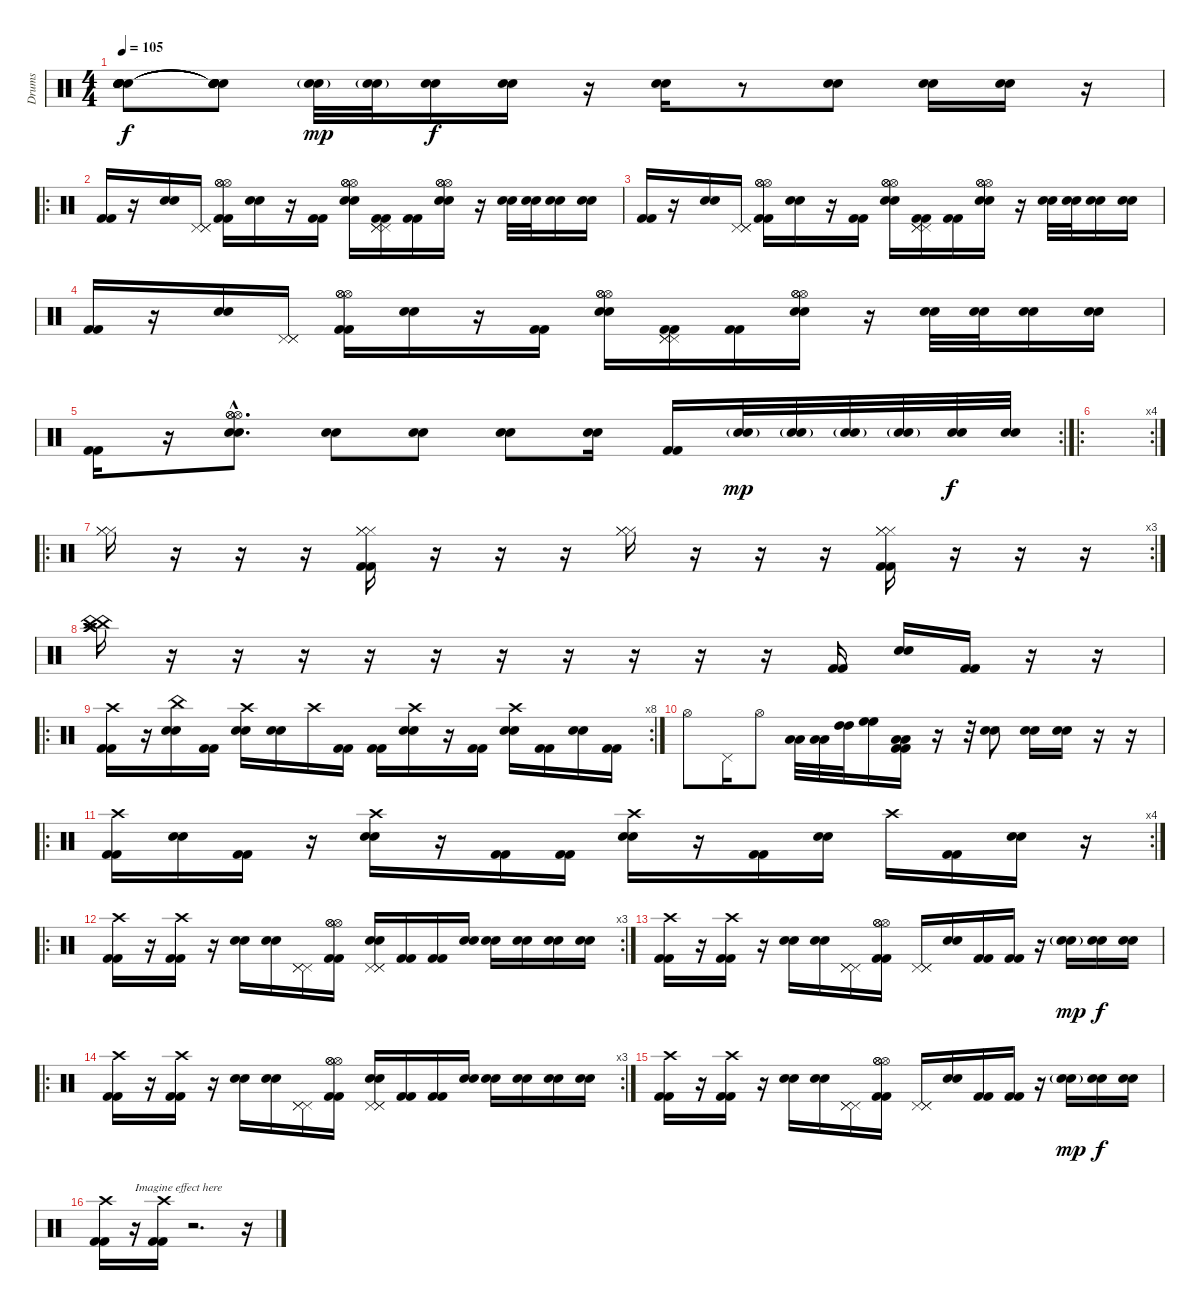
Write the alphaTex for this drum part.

\track ("Drums" "Drums") {instrument percussion}
\staff {score}
\articulation defaults
\ts (4 4)
\tempo 105
\clef neutral
\ks c
("Snare (hit)"{t} "Snare (hit)"{t} "Snare (hit)"{t} "Snare (hit)"{t} "Snare (hit)"{t} "Snare (hit)"{t}).8{dy f} ("Snare (hit)"{t} "Snare (hit)"{t} "Snare (hit)"{t} "Snare (hit)"{t} "Snare (hit)"{t} "Snare (hit)"{t}).8 ("Electric Snare (hit)"{g} "Electric Snare (hit)"{g}).32{dy mp} ("Electric Snare (hit)"{g} "Electric Snare (hit)"{g}).32 ("Electric Snare (hit)" "Electric Snare (hit)").16{dy f} ("Electric Snare (hit)" "Electric Snare (hit)").16 r.16 ("Electric Snare (hit)" "Electric Snare (hit)").16 r.8 ("Electric Snare (hit)" "Electric Snare (hit)").8 ("Electric Snare (hit)" "Electric Snare (hit)").16 ("Electric Snare (hit)" "Electric Snare (hit)").16 r.16 |
\ro
("Kick (hit) 2" "Kick (hit) 2").16 r.16 ("Electric Snare (hit)" "Electric Snare (hit)").16 ("Pedal Hi-Hat (hit)" "Pedal Hi-Hat (hit)" "Pedal Hi-Hat (hit)").16 ("Hi-Hat (open)" "Hi-Hat (open)" "Hi-Hat (open)" "Kick (hit) 2" "Kick (hit) 2").16 ("Electric Snare (hit)" "Electric Snare (hit)").16 r.16 ("Kick (hit) 2" "Kick (hit) 2").16 ("Hi-Hat (open)" "Hi-Hat (open)" "Hi-Hat (open)" "Electric Snare (hit)" "Electric Snare (hit)").16 ("Pedal Hi-Hat (hit)" "Pedal Hi-Hat (hit)" "Pedal Hi-Hat (hit)" "Kick (hit) 2" "Kick (hit) 2").16 ("Kick (hit) 2" "Kick (hit) 2").16 ("Hi-Hat (open)" "Hi-Hat (open)" "Hi-Hat (open)" "Electric Snare (hit)" "Electric Snare (hit)").16 r.16 ("Electric Snare (hit)" "Electric Snare (hit)").32 ("Electric Snare (hit)" "Electric Snare (hit)").32 ("Electric Snare (hit)" "Electric Snare (hit)").16 ("Electric Snare (hit)" "Electric Snare (hit)").16 |
("Kick (hit) 2" "Kick (hit) 2").16 r.16 ("Electric Snare (hit)" "Electric Snare (hit)").16 ("Pedal Hi-Hat (hit)" "Pedal Hi-Hat (hit)" "Pedal Hi-Hat (hit)").16 ("Hi-Hat (open)" "Hi-Hat (open)" "Hi-Hat (open)" "Kick (hit) 2" "Kick (hit) 2").16 ("Electric Snare (hit)" "Electric Snare (hit)").16 r.16 ("Kick (hit) 2" "Kick (hit) 2").16 ("Hi-Hat (open)" "Hi-Hat (open)" "Hi-Hat (open)" "Electric Snare (hit)" "Electric Snare (hit)").16 ("Pedal Hi-Hat (hit)" "Pedal Hi-Hat (hit)" "Pedal Hi-Hat (hit)" "Kick (hit) 2" "Kick (hit) 2").16 ("Kick (hit) 2" "Kick (hit) 2").16 ("Hi-Hat (open)" "Hi-Hat (open)" "Hi-Hat (open)" "Electric Snare (hit)" "Electric Snare (hit)").16 r.16 ("Electric Snare (hit)" "Electric Snare (hit)").32 ("Electric Snare (hit)" "Electric Snare (hit)").32 ("Electric Snare (hit)" "Electric Snare (hit)").16 ("Electric Snare (hit)" "Electric Snare (hit)").16 |
("Kick (hit) 2" "Kick (hit) 2").16 r.16 ("Electric Snare (hit)" "Electric Snare (hit)").16 ("Pedal Hi-Hat (hit)" "Pedal Hi-Hat (hit)" "Pedal Hi-Hat (hit)").16 ("Hi-Hat (open)" "Hi-Hat (open)" "Hi-Hat (open)" "Kick (hit) 2" "Kick (hit) 2").16 ("Electric Snare (hit)" "Electric Snare (hit)").16 r.16 ("Kick (hit) 2" "Kick (hit) 2").16 ("Hi-Hat (open)" "Hi-Hat (open)" "Hi-Hat (open)" "Electric Snare (hit)" "Electric Snare (hit)").16 ("Pedal Hi-Hat (hit)" "Pedal Hi-Hat (hit)" "Pedal Hi-Hat (hit)" "Kick (hit) 2" "Kick (hit) 2").16 ("Kick (hit) 2" "Kick (hit) 2").16 ("Hi-Hat (open)" "Hi-Hat (open)" "Hi-Hat (open)" "Electric Snare (hit)" "Electric Snare (hit)").16 r.16 ("Electric Snare (hit)" "Electric Snare (hit)").32 ("Electric Snare (hit)" "Electric Snare (hit)").32 ("Electric Snare (hit)" "Electric Snare (hit)").16 ("Electric Snare (hit)" "Electric Snare (hit)").16 |
\rc 2
("Kick (hit) 2" "Kick (hit) 2").16 r.16 ("Hi-Hat (open)"{hac} "Hi-Hat (open)"{hac} "Hi-Hat (open)"{hac} "Electric Snare (hit)"{hac} "Electric Snare (hit)"{hac}).8{d} ("Electric Snare (hit)" "Electric Snare (hit)").8 ("Electric Snare (hit)" "Electric Snare (hit)").8 ("Electric Snare (hit)" "Electric Snare (hit)").8 ("Electric Snare (hit)" "Electric Snare (hit)").16 ("Kick (hit) 2" "Kick (hit) 2").16 ("Electric Snare (hit)"{g} "Electric Snare (hit)"{g}).32{dy mp} ("Electric Snare (hit)"{g} "Electric Snare (hit)"{g}).32 ("Electric Snare (hit)"{g} "Electric Snare (hit)"{g}).32 ("Electric Snare (hit)"{g} "Electric Snare (hit)"{g}).32 ("Electric Snare (hit)" "Electric Snare (hit)").32{dy f} ("Electric Snare (hit)" "Electric Snare (hit)").32 |
\ro
\rc 4
|
\ro
\rc 3
("Hi-Hat (closed)" "Hi-Hat (closed)" "Hi-Hat (closed)").16 r.16 r.16 r.16 ("Hi-Hat (closed)" "Hi-Hat (closed)" "Hi-Hat (closed)" "Kick (hit) 2" "Kick (hit) 2").16 r.16 r.16 r.16 ("Hi-Hat (closed)" "Hi-Hat (closed)" "Hi-Hat (closed)").16 r.16 r.16 r.16 ("Hi-Hat (closed)" "Hi-Hat (closed)" "Hi-Hat (closed)" "Kick (hit) 2" "Kick (hit) 2").16 r.16 r.16 r.16 |
("Crash high (hit)" "Crash high (hit)" "China (hit)" "China (hit)").16 r.16 r.16 r.16 r.16 r.16 r.16 r.16 r.16 r.16 r.16 ("Kick (hit) 2" "Kick (hit) 2").16 ("Electric Snare (hit)" "Electric Snare (hit)").16 ("Kick (hit) 2" "Kick (hit) 2").16 r.16 r.16 |
\ro
\rc 8
("Crash high (hit)" "Kick (hit) 2" "Kick (hit) 2").16 r.16 ("China (hit)" "Electric Snare (hit)" "Electric Snare (hit)").16 ("Kick (hit) 2" "Kick (hit) 2").16 ("Crash high (hit)" "Electric Snare (hit)" "Electric Snare (hit)").16 ("Electric Snare (hit)" "Electric Snare (hit)").16 "Crash high (hit)".16 ("Kick (hit) 2" "Kick (hit) 2").16 ("Kick (hit) 2" "Kick (hit) 2").16 ("Crash high (hit)" "Electric Snare (hit)" "Electric Snare (hit)").16 r.16 ("Kick (hit) 2" "Kick (hit) 2").16 ("Crash high (hit)" "Electric Snare (hit)" "Electric Snare (hit)").16 ("Kick (hit) 2" "Kick (hit) 2").16 ("Electric Snare (hit)" "Electric Snare (hit)").16 ("Kick (hit) 2" "Kick (hit) 2").16 |
"Hi-Hat (open)".8 "Pedal Hi-Hat (hit)".16 "Hi-Hat (open)".8 ("Low Tom (hit)" "Low Tom (hit)").32 ("Low Tom (hit)" "Low Tom (hit)").32 ("High Tom (hit)" "High Tom (hit)").32 ("High Floor Tom (hit)" "High Floor Tom (hit)").16 ("Low Tom (hit)" "Low Tom (hit)" "Kick (hit) 2" "Kick (hit) 2").16 r.16 r.32 ("Electric Snare (hit)" "Electric Snare (hit)").8 ("Electric Snare (hit)" "Electric Snare (hit)").16 ("Electric Snare (hit)" "Electric Snare (hit)").16 r.16 r.16 |
\ro
\rc 4
("Crash high (hit)" "Kick (hit) 2" "Kick (hit) 2").16 ("Electric Snare (hit)" "Electric Snare (hit)").16 ("Kick (hit) 2" "Kick (hit) 2").16 r.16 ("Crash high (hit)" "Electric Snare (hit)" "Electric Snare (hit)").16 r.16 ("Kick (hit) 2" "Kick (hit) 2").16 ("Kick (hit) 2" "Kick (hit) 2").16 ("Crash high (hit)" "Electric Snare (hit)" "Electric Snare (hit)").16 r.16 ("Kick (hit) 2" "Kick (hit) 2").16 ("Electric Snare (hit)" "Electric Snare (hit)").16 "Crash high (hit)".16 ("Kick (hit) 2" "Kick (hit) 2").16 ("Electric Snare (hit)" "Electric Snare (hit)").16 r.16 |
\ro
\rc 3
("Crash high (hit)" "Kick (hit) 2" "Kick (hit) 2").16 r.16 ("Crash high (hit)" "Kick (hit) 2" "Kick (hit) 2").16 r.16 ("Electric Snare (hit)" "Electric Snare (hit)").16 ("Electric Snare (hit)" "Electric Snare (hit)").16 ("Pedal Hi-Hat (hit)" "Pedal Hi-Hat (hit)" "Pedal Hi-Hat (hit)").16 ("Hi-Hat (open)" "Hi-Hat (open)" "Hi-Hat (open)" "Kick (hit) 2" "Kick (hit) 2").16 ("Pedal Hi-Hat (hit)" "Pedal Hi-Hat (hit)" "Pedal Hi-Hat (hit)" "Electric Snare (hit)" "Electric Snare (hit)").16 ("Kick (hit) 2" "Kick (hit) 2").16 ("Kick (hit) 2" "Kick (hit) 2").16 ("Electric Snare (hit)" "Electric Snare (hit)").16 ("Electric Snare (hit)" "Electric Snare (hit)").16 ("Electric Snare (hit)" "Electric Snare (hit)").16 ("Electric Snare (hit)" "Electric Snare (hit)").16 ("Electric Snare (hit)" "Electric Snare (hit)").16 |
("Crash high (hit)" "Kick (hit) 2" "Kick (hit) 2").16 r.16 ("Crash high (hit)" "Kick (hit) 2" "Kick (hit) 2").16 r.16 ("Electric Snare (hit)" "Electric Snare (hit)").16 ("Electric Snare (hit)" "Electric Snare (hit)").16 ("Pedal Hi-Hat (hit)" "Pedal Hi-Hat (hit)" "Pedal Hi-Hat (hit)").16 ("Hi-Hat (open)" "Hi-Hat (open)" "Hi-Hat (open)" "Kick (hit) 2" "Kick (hit) 2").16 ("Pedal Hi-Hat (hit)" "Pedal Hi-Hat (hit)" "Pedal Hi-Hat (hit)").16 ("Electric Snare (hit)" "Electric Snare (hit)").16 ("Kick (hit) 2" "Kick (hit) 2").16 ("Kick (hit) 2" "Kick (hit) 2").16 r.16 ("Electric Snare (hit)"{g} "Electric Snare (hit)"{g}).16{dy mp} ("Electric Snare (hit)" "Electric Snare (hit)").16{dy f} ("Electric Snare (hit)" "Electric Snare (hit)").16 |
\ro
\rc 3
("Crash high (hit)" "Kick (hit) 2" "Kick (hit) 2").16 r.16 ("Crash high (hit)" "Kick (hit) 2" "Kick (hit) 2").16 r.16 ("Electric Snare (hit)" "Electric Snare (hit)").16 ("Electric Snare (hit)" "Electric Snare (hit)").16 ("Pedal Hi-Hat (hit)" "Pedal Hi-Hat (hit)" "Pedal Hi-Hat (hit)").16 ("Hi-Hat (open)" "Hi-Hat (open)" "Hi-Hat (open)" "Kick (hit) 2" "Kick (hit) 2").16 ("Pedal Hi-Hat (hit)" "Pedal Hi-Hat (hit)" "Pedal Hi-Hat (hit)" "Electric Snare (hit)" "Electric Snare (hit)").16 ("Kick (hit) 2" "Kick (hit) 2").16 ("Kick (hit) 2" "Kick (hit) 2").16 ("Electric Snare (hit)" "Electric Snare (hit)").16 ("Electric Snare (hit)" "Electric Snare (hit)").16 ("Electric Snare (hit)" "Electric Snare (hit)").16 ("Electric Snare (hit)" "Electric Snare (hit)").16 ("Electric Snare (hit)" "Electric Snare (hit)").16 |
("Crash high (hit)" "Kick (hit) 2" "Kick (hit) 2").16 r.16 ("Crash high (hit)" "Kick (hit) 2" "Kick (hit) 2").16 r.16 ("Electric Snare (hit)" "Electric Snare (hit)").16 ("Electric Snare (hit)" "Electric Snare (hit)").16 ("Pedal Hi-Hat (hit)" "Pedal Hi-Hat (hit)" "Pedal Hi-Hat (hit)").16 ("Hi-Hat (open)" "Hi-Hat (open)" "Hi-Hat (open)" "Kick (hit) 2" "Kick (hit) 2").16 ("Pedal Hi-Hat (hit)" "Pedal Hi-Hat (hit)" "Pedal Hi-Hat (hit)").16 ("Electric Snare (hit)" "Electric Snare (hit)").16 ("Kick (hit) 2" "Kick (hit) 2").16 ("Kick (hit) 2" "Kick (hit) 2").16 r.16 ("Electric Snare (hit)"{g} "Electric Snare (hit)"{g}).16{dy mp} ("Electric Snare (hit)" "Electric Snare (hit)").16{dy f} ("Electric Snare (hit)" "Electric Snare (hit)").16 |
("Crash high (hit)" "Kick (hit) 2" "Kick (hit) 2").16 r.16{txt "Imagine effect here"} ("Crash high (hit)" "Kick (hit) 2" "Kick (hit) 2").16 r.2{d} r.16
